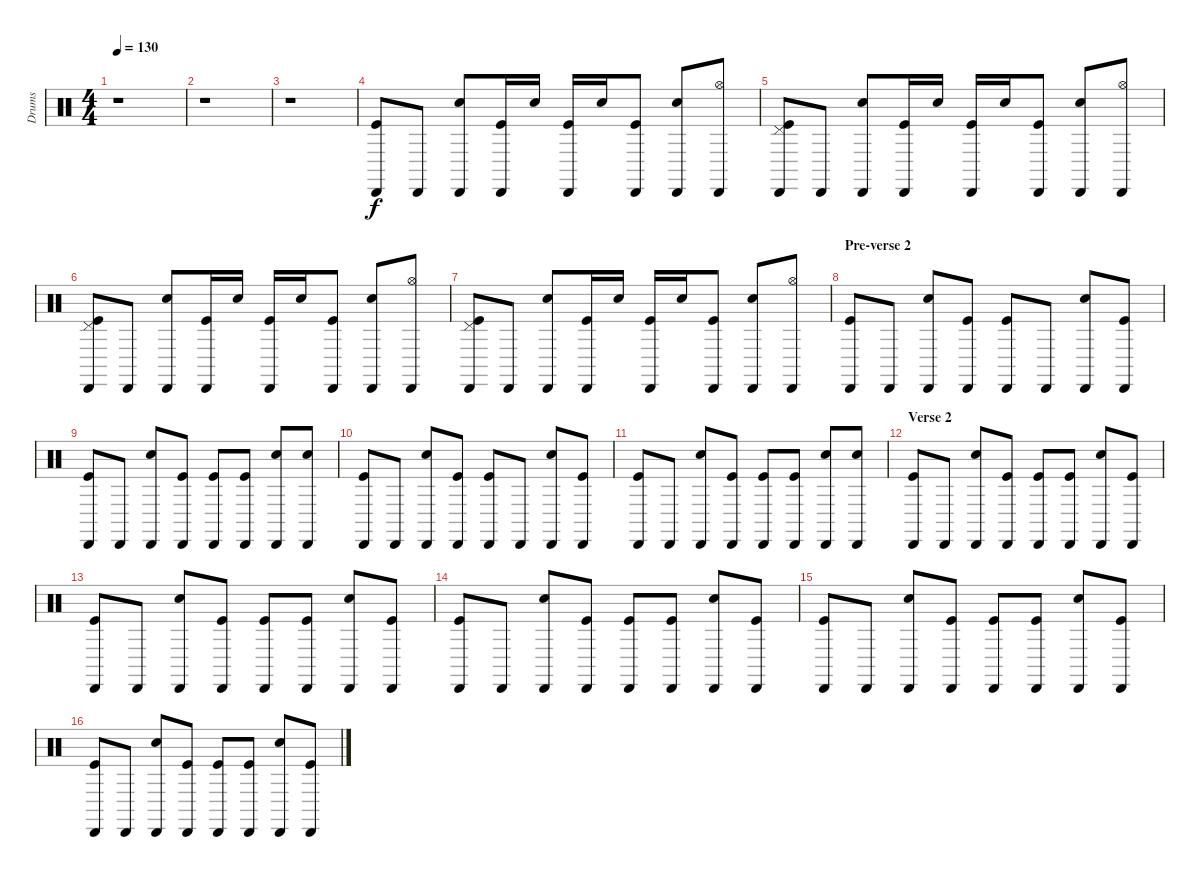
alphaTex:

\track ("Drums" "Drums") {instrument percussion}
\staff {score}
\articulation defaults
\ts (4 4)
\tempo 130
\clef neutral
\ks c
r.1{dy f} |
r.1 |
r.1 |
("Cabasa (hit)" "Kick (hit)").8 "Cabasa (hit)".8 ("Cabasa (hit)" "Electric Snare (hit)").8 ("Cabasa (hit)" "Kick (hit)").16 "Electric Snare (hit)".16 ("Cabasa (hit)" "Kick (hit)").16 "Electric Snare (hit)".16 ("Cabasa (hit)" "Kick (hit)").8 ("Cabasa (hit)" "Electric Snare (hit)").8 ("Cabasa (hit)" "Hi-Hat (open)").8 |
("Cabasa (hit)" "Pedal Hi-Hat (hit)" "Kick (hit)").8 "Cabasa (hit)".8 ("Cabasa (hit)" "Electric Snare (hit)").8 ("Cabasa (hit)" "Kick (hit)").16 "Electric Snare (hit)".16 ("Cabasa (hit)" "Kick (hit)").16 "Electric Snare (hit)".16 ("Cabasa (hit)" "Kick (hit)").8 ("Cabasa (hit)" "Electric Snare (hit)").8 ("Cabasa (hit)" "Hi-Hat (open)").8 |
("Cabasa (hit)" "Pedal Hi-Hat (hit)" "Kick (hit)").8 "Cabasa (hit)".8 ("Cabasa (hit)" "Electric Snare (hit)").8 ("Cabasa (hit)" "Kick (hit)").16 "Electric Snare (hit)".16 ("Cabasa (hit)" "Kick (hit)").16 "Electric Snare (hit)".16 ("Cabasa (hit)" "Kick (hit)").8 ("Cabasa (hit)" "Electric Snare (hit)").8 ("Cabasa (hit)" "Hi-Hat (open)").8 |
("Cabasa (hit)" "Pedal Hi-Hat (hit)" "Kick (hit)").8 "Cabasa (hit)".8 ("Cabasa (hit)" "Electric Snare (hit)").8 ("Cabasa (hit)" "Kick (hit)").16 "Electric Snare (hit)".16 ("Cabasa (hit)" "Kick (hit)").16 "Electric Snare (hit)".16 ("Cabasa (hit)" "Kick (hit)").8 ("Cabasa (hit)" "Electric Snare (hit)").8 ("Cabasa (hit)" "Hi-Hat (open)").8 |
\section ("" "Pre-verse 2")
("Cabasa (hit)" "Kick (hit)").8 "Cabasa (hit)".8 ("Cabasa (hit)" "Electric Snare (hit)").8 ("Cabasa (hit)" "Kick (hit)").8 ("Cabasa (hit)" "Kick (hit)").8 "Cabasa (hit)".8 ("Cabasa (hit)" "Electric Snare (hit)").8 ("Cabasa (hit)" "Kick (hit)").8 |
("Cabasa (hit)" "Kick (hit)").8 "Cabasa (hit)".8 ("Cabasa (hit)" "Electric Snare (hit)").8 ("Cabasa (hit)" "Kick (hit)").8 ("Cabasa (hit)" "Kick (hit)").8 ("Cabasa (hit)" "Kick (hit)").8 ("Cabasa (hit)" "Electric Snare (hit)").8 ("Cabasa (hit)" "Electric Snare (hit)").8 |
("Cabasa (hit)" "Kick (hit)").8 "Cabasa (hit)".8 ("Cabasa (hit)" "Electric Snare (hit)").8 ("Cabasa (hit)" "Kick (hit)").8 ("Cabasa (hit)" "Kick (hit)").8 "Cabasa (hit)".8 ("Cabasa (hit)" "Electric Snare (hit)").8 ("Cabasa (hit)" "Kick (hit)").8 |
("Cabasa (hit)" "Kick (hit)").8 "Cabasa (hit)".8 ("Cabasa (hit)" "Electric Snare (hit)").8 ("Cabasa (hit)" "Kick (hit)").8 ("Cabasa (hit)" "Kick (hit)").8 ("Cabasa (hit)" "Kick (hit)").8 ("Cabasa (hit)" "Electric Snare (hit)").8 ("Cabasa (hit)" "Electric Snare (hit)").8 |
\section ("" "Verse 2")
("Cabasa (hit)" "Kick (hit)").8 "Cabasa (hit)".8 ("Cabasa (hit)" "Electric Snare (hit)").8 ("Cabasa (hit)" "Kick (hit)").8 ("Cabasa (hit)" "Kick (hit)").8 ("Cabasa (hit)" "Kick (hit)").8 ("Cabasa (hit)" "Electric Snare (hit)").8 ("Cabasa (hit)" "Kick (hit)").8 |
("Cabasa (hit)" "Kick (hit)").8 "Cabasa (hit)".8 ("Cabasa (hit)" "Electric Snare (hit)").8 ("Cabasa (hit)" "Kick (hit)").8 ("Cabasa (hit)" "Kick (hit)").8 ("Cabasa (hit)" "Kick (hit)").8 ("Cabasa (hit)" "Electric Snare (hit)").8 ("Cabasa (hit)" "Kick (hit)").8 |
("Cabasa (hit)" "Kick (hit)").8 "Cabasa (hit)".8 ("Cabasa (hit)" "Electric Snare (hit)").8 ("Cabasa (hit)" "Kick (hit)").8 ("Cabasa (hit)" "Kick (hit)").8 ("Cabasa (hit)" "Kick (hit)").8 ("Cabasa (hit)" "Electric Snare (hit)").8 ("Cabasa (hit)" "Kick (hit)").8 |
("Cabasa (hit)" "Kick (hit)").8 "Cabasa (hit)".8 ("Cabasa (hit)" "Electric Snare (hit)").8 ("Cabasa (hit)" "Kick (hit)").8 ("Cabasa (hit)" "Kick (hit)").8 ("Cabasa (hit)" "Kick (hit)").8 ("Cabasa (hit)" "Electric Snare (hit)").8 ("Cabasa (hit)" "Kick (hit)").8 |
("Cabasa (hit)" "Kick (hit)").8 "Cabasa (hit)".8 ("Cabasa (hit)" "Electric Snare (hit)").8 ("Cabasa (hit)" "Kick (hit)").8 ("Cabasa (hit)" "Kick (hit)").8 ("Cabasa (hit)" "Kick (hit)").8 ("Cabasa (hit)" "Electric Snare (hit)").8 ("Cabasa (hit)" "Kick (hit)").8
